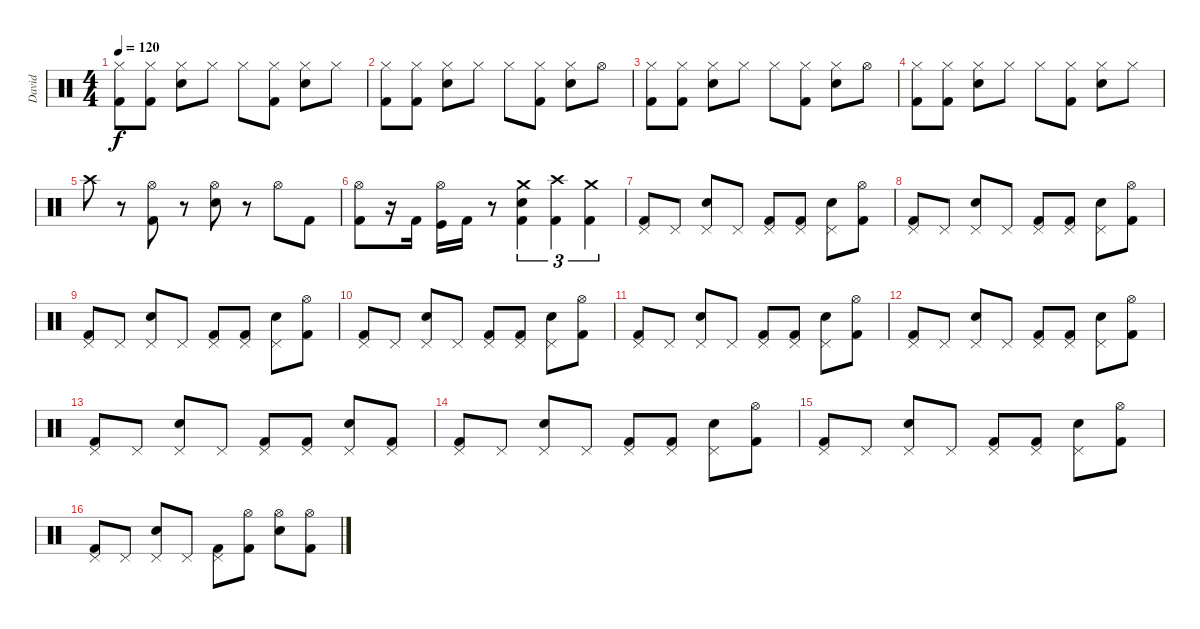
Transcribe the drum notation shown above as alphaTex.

\track ("David" "David") {instrument percussion}
\staff {score}
\articulation defaults
\ts (4 4)
\tempo 120
\clef neutral
\ks c
("Hi-Hat (closed)" "Kick (hit) 2").8{dy f} ("Hi-Hat (closed)" "Kick (hit) 2").8 ("Hi-Hat (closed)" "Snare (hit) 2").8 "Hi-Hat (closed)".8 "Hi-Hat (closed)".8 ("Hi-Hat (closed)" "Kick (hit) 2").8 ("Hi-Hat (closed)" "Snare (hit) 2").8 "Hi-Hat (closed)".8 |
("Hi-Hat (closed)" "Kick (hit) 2").8 ("Hi-Hat (closed)" "Kick (hit) 2").8 ("Hi-Hat (closed)" "Snare (hit) 2").8 "Hi-Hat (closed)".8 "Hi-Hat (closed)".8 ("Hi-Hat (closed)" "Kick (hit) 2").8 ("Hi-Hat (closed)" "Snare (hit) 2").8 "Hi-Hat (open)".8 |
("Hi-Hat (closed)" "Kick (hit) 2").8 ("Hi-Hat (closed)" "Kick (hit) 2").8 ("Hi-Hat (closed)" "Snare (hit) 2").8 "Hi-Hat (closed)".8 "Hi-Hat (closed)".8 ("Hi-Hat (closed)" "Kick (hit) 2").8 ("Hi-Hat (closed)" "Snare (hit) 2").8 "Hi-Hat (open)".8 |
("Hi-Hat (closed)" "Kick (hit) 2").8 ("Hi-Hat (closed)" "Kick (hit) 2").8 ("Hi-Hat (closed)" "Snare (hit) 2").8 "Hi-Hat (closed)".8 "Hi-Hat (closed)".8 ("Hi-Hat (closed)" "Kick (hit) 2").8 ("Hi-Hat (closed)" "Snare (hit) 2").8 "Hi-Hat (closed)".8 |
"Crash high (hit)".8 r.8 ("Hi-Hat (open)" "Kick (hit) 2").8 r.8 ("Hi-Hat (open)" "Snare (hit) 2").8 r.8 "Hi-Hat (open)".8 "Kick (hit) 2".8 |
("Hi-Hat (open)" "Kick (hit) 2").8 r.16 "Kick (hit) 2".16 ("Hi-Hat (open)" "Kick (hit)").16 "Kick (hit) 2".16 r.8 ("Crash medium (hit)" "Snare (hit) 2" "Kick (hit) 2").4{tu (3 2)} ("Crash high (hit)" "Kick (hit) 2").4{tu (3 2)} ("Crash medium (hit)" "Kick (hit) 2").4{tu (3 2)} |
("Pedal Hi-Hat (hit)" "Kick (hit) 2").8 "Pedal Hi-Hat (hit)".8 ("Pedal Hi-Hat (hit)" "Snare (hit) 2").8 "Pedal Hi-Hat (hit)".8 ("Pedal Hi-Hat (hit)" "Kick (hit) 2").8 ("Pedal Hi-Hat (hit)" "Kick (hit) 2").8 ("Pedal Hi-Hat (hit)" "Snare (hit) 2").8 ("Hi-Hat (open)" "Kick (hit) 2").8 |
("Pedal Hi-Hat (hit)" "Kick (hit) 2").8 "Pedal Hi-Hat (hit)".8 ("Pedal Hi-Hat (hit)" "Snare (hit) 2").8 "Pedal Hi-Hat (hit)".8 ("Pedal Hi-Hat (hit)" "Kick (hit) 2").8 ("Pedal Hi-Hat (hit)" "Kick (hit) 2").8 ("Pedal Hi-Hat (hit)" "Snare (hit) 2").8 ("Hi-Hat (open)" "Kick (hit) 2").8 |
("Pedal Hi-Hat (hit)" "Kick (hit) 2").8 "Pedal Hi-Hat (hit)".8 ("Pedal Hi-Hat (hit)" "Snare (hit) 2").8 "Pedal Hi-Hat (hit)".8 ("Pedal Hi-Hat (hit)" "Kick (hit) 2").8 ("Pedal Hi-Hat (hit)" "Kick (hit) 2").8 ("Pedal Hi-Hat (hit)" "Snare (hit) 2").8 ("Hi-Hat (open)" "Kick (hit) 2").8 |
("Pedal Hi-Hat (hit)" "Kick (hit) 2").8 "Pedal Hi-Hat (hit)".8 ("Pedal Hi-Hat (hit)" "Snare (hit) 2").8 "Pedal Hi-Hat (hit)".8 ("Pedal Hi-Hat (hit)" "Kick (hit) 2").8 ("Pedal Hi-Hat (hit)" "Kick (hit) 2").8 ("Pedal Hi-Hat (hit)" "Snare (hit) 2").8 ("Hi-Hat (open)" "Kick (hit) 2").8 |
("Pedal Hi-Hat (hit)" "Kick (hit) 2").8 "Pedal Hi-Hat (hit)".8 ("Pedal Hi-Hat (hit)" "Snare (hit) 2").8 "Pedal Hi-Hat (hit)".8 ("Pedal Hi-Hat (hit)" "Kick (hit) 2").8 ("Pedal Hi-Hat (hit)" "Kick (hit) 2").8 ("Pedal Hi-Hat (hit)" "Snare (hit) 2").8 ("Hi-Hat (open)" "Kick (hit) 2").8 |
("Pedal Hi-Hat (hit)" "Kick (hit) 2").8 "Pedal Hi-Hat (hit)".8 ("Pedal Hi-Hat (hit)" "Snare (hit) 2").8 "Pedal Hi-Hat (hit)".8 ("Pedal Hi-Hat (hit)" "Kick (hit) 2").8 ("Pedal Hi-Hat (hit)" "Kick (hit) 2").8 ("Pedal Hi-Hat (hit)" "Snare (hit) 2").8 ("Hi-Hat (open)" "Kick (hit) 2").8 |
("Pedal Hi-Hat (hit)" "Kick (hit) 2").8 "Pedal Hi-Hat (hit)".8 ("Pedal Hi-Hat (hit)" "Snare (hit) 2").8 "Pedal Hi-Hat (hit)".8 ("Pedal Hi-Hat (hit)" "Kick (hit) 2").8 ("Pedal Hi-Hat (hit)" "Kick (hit) 2").8 ("Pedal Hi-Hat (hit)" "Snare (hit) 2").8 ("Pedal Hi-Hat (hit)" "Kick (hit) 2").8 |
("Pedal Hi-Hat (hit)" "Kick (hit) 2").8 "Pedal Hi-Hat (hit)".8 ("Pedal Hi-Hat (hit)" "Snare (hit) 2").8 "Pedal Hi-Hat (hit)".8 ("Pedal Hi-Hat (hit)" "Kick (hit) 2").8 ("Pedal Hi-Hat (hit)" "Kick (hit) 2").8 ("Pedal Hi-Hat (hit)" "Snare (hit) 2").8 ("Hi-Hat (open)" "Kick (hit) 2").8 |
("Pedal Hi-Hat (hit)" "Kick (hit) 2").8 "Pedal Hi-Hat (hit)".8 ("Pedal Hi-Hat (hit)" "Snare (hit) 2").8 "Pedal Hi-Hat (hit)".8 ("Pedal Hi-Hat (hit)" "Kick (hit) 2").8 ("Pedal Hi-Hat (hit)" "Kick (hit) 2").8 ("Pedal Hi-Hat (hit)" "Snare (hit) 2").8 ("Hi-Hat (open)" "Kick (hit) 2").8 |
("Pedal Hi-Hat (hit)" "Kick (hit) 2").8 "Pedal Hi-Hat (hit)".8 ("Pedal Hi-Hat (hit)" "Snare (hit) 2").8 "Pedal Hi-Hat (hit)".8 ("Pedal Hi-Hat (hit)" "Kick (hit) 2").8 ("Hi-Hat (open)" "Kick (hit) 2").8 ("Hi-Hat (open)" "Snare (hit) 2").8 ("Hi-Hat (open)" "Kick (hit) 2").8
